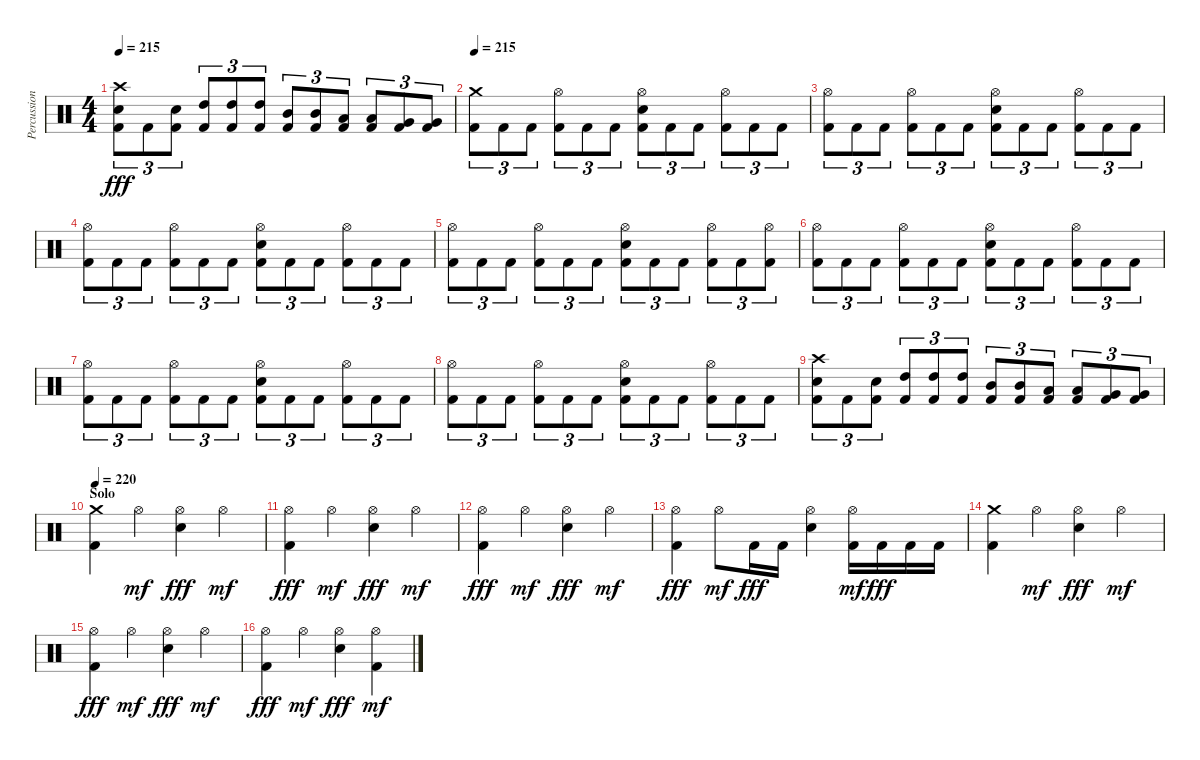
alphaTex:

\track ("Percussion" "Percussion") {instrument percussion}
\staff {score}
\articulation defaults
\ts (4 4)
\tempo 215
\clef neutral
\ks c
("Kick (hit) 2" "Electric Snare (hit)" "Crash high (hit)").8{tu (3 2) dy fff} "Kick (hit) 2".8{tu (3 2)} ("Kick (hit) 2" "Electric Snare (hit)").8{tu (3 2)} ("Kick (hit) 2" "High Tom (hit)").8{tu (3 2)} ("Kick (hit) 2" "High Tom (hit)").8{tu (3 2)} ("Kick (hit) 2" "High Tom (hit)").8{tu (3 2)} ("Kick (hit) 2" "Mid Tom (hit)").8{tu (3 2)} ("Kick (hit) 2" "Mid Tom (hit)").8{tu (3 2)} ("Kick (hit) 2" "Low Tom (hit)").8{tu (3 2)} ("Kick (hit) 2" "Low Tom (hit)").8{tu (3 2)} ("Kick (hit) 2" "Very Low Tom (hit)").8{tu (3 2)} ("Kick (hit) 2" "Very Low Tom (hit)").8{tu (3 2)} |
\tempo 215
("Kick (hit) 2" "Crash medium (hit)").8{tu (3 2)} "Kick (hit) 2".8{tu (3 2)} "Kick (hit) 2".8{tu (3 2)} ("Kick (hit) 2" "Hi-Hat (open)").8{tu (3 2)} "Kick (hit) 2".8{tu (3 2)} "Kick (hit) 2".8{tu (3 2)} ("Kick (hit) 2" "Electric Snare (hit)" "Hi-Hat (open)").8{tu (3 2)} "Kick (hit) 2".8{tu (3 2)} "Kick (hit) 2".8{tu (3 2)} ("Kick (hit) 2" "Hi-Hat (open)").8{tu (3 2)} "Kick (hit) 2".8{tu (3 2)} "Kick (hit) 2".8{tu (3 2)} |
("Kick (hit) 2" "Hi-Hat (open)").8{tu (3 2)} "Kick (hit) 2".8{tu (3 2)} "Kick (hit) 2".8{tu (3 2)} ("Kick (hit) 2" "Hi-Hat (open)").8{tu (3 2)} "Kick (hit) 2".8{tu (3 2)} "Kick (hit) 2".8{tu (3 2)} ("Kick (hit) 2" "Electric Snare (hit)" "Hi-Hat (open)").8{tu (3 2)} "Kick (hit) 2".8{tu (3 2)} "Kick (hit) 2".8{tu (3 2)} ("Kick (hit) 2" "Hi-Hat (open)").8{tu (3 2)} "Kick (hit) 2".8{tu (3 2)} "Kick (hit) 2".8{tu (3 2)} |
("Kick (hit) 2" "Hi-Hat (open)").8{tu (3 2)} "Kick (hit) 2".8{tu (3 2)} "Kick (hit) 2".8{tu (3 2)} ("Kick (hit) 2" "Hi-Hat (open)").8{tu (3 2)} "Kick (hit) 2".8{tu (3 2)} "Kick (hit) 2".8{tu (3 2)} ("Kick (hit) 2" "Electric Snare (hit)" "Hi-Hat (open)").8{tu (3 2)} "Kick (hit) 2".8{tu (3 2)} "Kick (hit) 2".8{tu (3 2)} ("Kick (hit) 2" "Hi-Hat (open)").8{tu (3 2)} "Kick (hit) 2".8{tu (3 2)} "Kick (hit) 2".8{tu (3 2)} |
("Kick (hit) 2" "Hi-Hat (open)").8{tu (3 2)} "Kick (hit) 2".8{tu (3 2)} "Kick (hit) 2".8{tu (3 2)} ("Kick (hit) 2" "Hi-Hat (open)").8{tu (3 2)} "Kick (hit) 2".8{tu (3 2)} "Kick (hit) 2".8{tu (3 2)} ("Kick (hit) 2" "Electric Snare (hit)" "Hi-Hat (open)").8{tu (3 2)} "Kick (hit) 2".8{tu (3 2)} "Kick (hit) 2".8{tu (3 2)} ("Kick (hit) 2" "Hi-Hat (open)").8{tu (3 2)} "Kick (hit) 2".8{tu (3 2)} ("Kick (hit) 2" "Hi-Hat (open)").8{tu (3 2)} |
("Kick (hit) 2" "Hi-Hat (open)").8{tu (3 2)} "Kick (hit) 2".8{tu (3 2)} "Kick (hit) 2".8{tu (3 2)} ("Kick (hit) 2" "Hi-Hat (open)").8{tu (3 2)} "Kick (hit) 2".8{tu (3 2)} "Kick (hit) 2".8{tu (3 2)} ("Kick (hit) 2" "Electric Snare (hit)" "Hi-Hat (open)").8{tu (3 2)} "Kick (hit) 2".8{tu (3 2)} "Kick (hit) 2".8{tu (3 2)} ("Kick (hit) 2" "Hi-Hat (open)").8{tu (3 2)} "Kick (hit) 2".8{tu (3 2)} "Kick (hit) 2".8{tu (3 2)} |
("Kick (hit) 2" "Hi-Hat (open)").8{tu (3 2)} "Kick (hit) 2".8{tu (3 2)} "Kick (hit) 2".8{tu (3 2)} ("Kick (hit) 2" "Hi-Hat (open)").8{tu (3 2)} "Kick (hit) 2".8{tu (3 2)} "Kick (hit) 2".8{tu (3 2)} ("Kick (hit) 2" "Electric Snare (hit)" "Hi-Hat (open)").8{tu (3 2)} "Kick (hit) 2".8{tu (3 2)} "Kick (hit) 2".8{tu (3 2)} ("Kick (hit) 2" "Hi-Hat (open)").8{tu (3 2)} "Kick (hit) 2".8{tu (3 2)} "Kick (hit) 2".8{tu (3 2)} |
("Kick (hit) 2" "Hi-Hat (open)").8{tu (3 2)} "Kick (hit) 2".8{tu (3 2)} "Kick (hit) 2".8{tu (3 2)} ("Kick (hit) 2" "Hi-Hat (open)").8{tu (3 2)} "Kick (hit) 2".8{tu (3 2)} "Kick (hit) 2".8{tu (3 2)} ("Kick (hit) 2" "Electric Snare (hit)" "Hi-Hat (open)").8{tu (3 2)} "Kick (hit) 2".8{tu (3 2)} "Kick (hit) 2".8{tu (3 2)} ("Kick (hit) 2" "Hi-Hat (open)").8{tu (3 2)} "Kick (hit) 2".8{tu (3 2)} "Kick (hit) 2".8{tu (3 2)} |
("Kick (hit) 2" "Electric Snare (hit)" "Crash high (hit)").8{tu (3 2)} "Kick (hit) 2".8{tu (3 2)} ("Kick (hit) 2" "Electric Snare (hit)").8{tu (3 2)} ("Kick (hit) 2" "High Tom (hit)").8{tu (3 2)} ("Kick (hit) 2" "High Tom (hit)").8{tu (3 2)} ("Kick (hit) 2" "High Tom (hit)").8{tu (3 2)} ("Kick (hit) 2" "Mid Tom (hit)").8{tu (3 2)} ("Kick (hit) 2" "Mid Tom (hit)").8{tu (3 2)} ("Kick (hit) 2" "Low Tom (hit)").8{tu (3 2)} ("Kick (hit) 2" "Low Tom (hit)").8{tu (3 2)} ("Kick (hit) 2" "Very Low Tom (hit)").8{tu (3 2)} ("Kick (hit) 2" "Very Low Tom (hit)").8{tu (3 2)} |
\section ("" "Solo")
\tempo 220
("Kick (hit) 2" "Crash medium (hit)").4 "Hi-Hat (open)".4{dy mf} ("Electric Snare (hit)" "Hi-Hat (open)").4{dy fff} "Hi-Hat (open)".4{dy mf} |
("Kick (hit) 2" "Hi-Hat (open)").4{dy fff} "Hi-Hat (open)".4{dy mf} ("Electric Snare (hit)" "Hi-Hat (open)").4{dy fff} "Hi-Hat (open)".4{dy mf} |
("Kick (hit) 2" "Hi-Hat (open)").4{dy fff} "Hi-Hat (open)".4{dy mf} ("Electric Snare (hit)" "Hi-Hat (open)").4{dy fff} "Hi-Hat (open)".4{dy mf} |
("Kick (hit) 2" "Hi-Hat (open)").4{dy fff} "Hi-Hat (open)".8{dy mf} "Kick (hit) 2".16{dy fff} "Kick (hit) 2".16 ("Electric Snare (hit)" "Hi-Hat (open)").4 ("Kick (hit) 2" "Hi-Hat (open)").16{dy mf} "Kick (hit) 2".16{dy fff} "Kick (hit) 2".16 "Kick (hit) 2".16 |
("Kick (hit) 2" "Crash medium (hit)").4 "Hi-Hat (open)".4{dy mf} ("Electric Snare (hit)" "Hi-Hat (open)").4{dy fff} "Hi-Hat (open)".4{dy mf} |
("Kick (hit) 2" "Hi-Hat (open)").4{dy fff} "Hi-Hat (open)".4{dy mf} ("Electric Snare (hit)" "Hi-Hat (open)").4{dy fff} "Hi-Hat (open)".4{dy mf} |
("Kick (hit) 2" "Hi-Hat (open)").4{dy fff} "Hi-Hat (open)".4{dy mf} ("Electric Snare (hit)" "Hi-Hat (open)").4{dy fff} ("Kick (hit) 2" "Hi-Hat (open)").4{dy mf}
